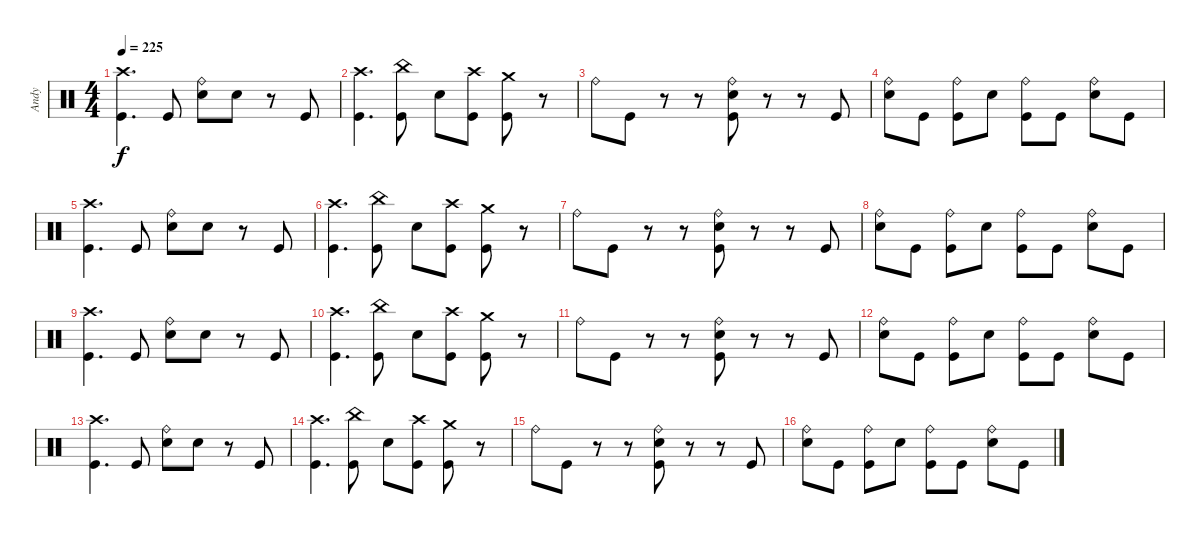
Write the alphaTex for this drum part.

\track ("Andy" "Andy") {instrument percussion}
\staff {score}
\articulation defaults
\ts (4 4)
\tempo 225
\clef neutral
\ks c
("Kick (hit)" "Crash high (hit)").4{d dy f} "Kick (hit)".8 ("Snare (hit) 2" "Ride (bell)").8 "Snare (hit) 2".8 r.8 "Kick (hit)".8 |
("Kick (hit)" "Crash high (hit)").4{d} ("Kick (hit)" "China (hit)").8 "Snare (hit) 2".8 ("Kick (hit)" "Crash high (hit)").8 ("Crash medium (hit)" "Kick (hit)").8 r.8 |
"Ride (bell)".8 "Kick (hit)".8 r.8 r.8 ("Kick (hit)" "Snare (hit) 2" "Ride (bell)").8 r.8 r.8 "Kick (hit)".8 |
("Snare (hit) 2" "Ride (bell)").8 "Kick (hit)".8 ("Kick (hit)" "Ride (bell)").8 "Snare (hit) 2".8 ("Kick (hit)" "Ride (bell)").8 "Kick (hit)".8 ("Snare (hit) 2" "Ride (bell)").8 "Kick (hit)".8 |
("Kick (hit)" "Crash high (hit)").4{d} "Kick (hit)".8 ("Snare (hit) 2" "Ride (bell)").8 "Snare (hit) 2".8 r.8 "Kick (hit)".8 |
("Kick (hit)" "Crash high (hit)").4{d} ("Kick (hit)" "China (hit)").8 "Snare (hit) 2".8 ("Kick (hit)" "Crash high (hit)").8 ("Crash medium (hit)" "Kick (hit)").8 r.8 |
"Ride (bell)".8 "Kick (hit)".8 r.8 r.8 ("Kick (hit)" "Snare (hit) 2" "Ride (bell)").8 r.8 r.8 "Kick (hit)".8 |
("Snare (hit) 2" "Ride (bell)").8 "Kick (hit)".8 ("Kick (hit)" "Ride (bell)").8 "Snare (hit) 2".8 ("Kick (hit)" "Ride (bell)").8 "Kick (hit)".8 ("Snare (hit) 2" "Ride (bell)").8 "Kick (hit)".8 |
("Kick (hit)" "Crash high (hit)").4{d} "Kick (hit)".8 ("Snare (hit) 2" "Ride (bell)").8 "Snare (hit) 2".8 r.8 "Kick (hit)".8 |
("Kick (hit)" "Crash high (hit)").4{d} ("Kick (hit)" "China (hit)").8 "Snare (hit) 2".8 ("Kick (hit)" "Crash high (hit)").8 ("Crash medium (hit)" "Kick (hit)").8 r.8 |
"Ride (bell)".8 "Kick (hit)".8 r.8 r.8 ("Kick (hit)" "Snare (hit) 2" "Ride (bell)").8 r.8 r.8 "Kick (hit)".8 |
("Snare (hit) 2" "Ride (bell)").8 "Kick (hit)".8 ("Kick (hit)" "Ride (bell)").8 "Snare (hit) 2".8 ("Kick (hit)" "Ride (bell)").8 "Kick (hit)".8 ("Snare (hit) 2" "Ride (bell)").8 "Kick (hit)".8 |
("Kick (hit)" "Crash high (hit)").4{d} "Kick (hit)".8 ("Snare (hit) 2" "Ride (bell)").8 "Snare (hit) 2".8 r.8 "Kick (hit)".8 |
("Kick (hit)" "Crash high (hit)").4{d} ("Kick (hit)" "China (hit)").8 "Snare (hit) 2".8 ("Kick (hit)" "Crash high (hit)").8 ("Crash medium (hit)" "Kick (hit)").8 r.8 |
"Ride (bell)".8 "Kick (hit)".8 r.8 r.8 ("Kick (hit)" "Snare (hit) 2" "Ride (bell)").8 r.8 r.8 "Kick (hit)".8 |
("Snare (hit) 2" "Ride (bell)").8 "Kick (hit)".8 ("Kick (hit)" "Ride (bell)").8 "Snare (hit) 2".8 ("Kick (hit)" "Ride (bell)").8 "Kick (hit)".8 ("Snare (hit) 2" "Ride (bell)").8 "Kick (hit)".8
